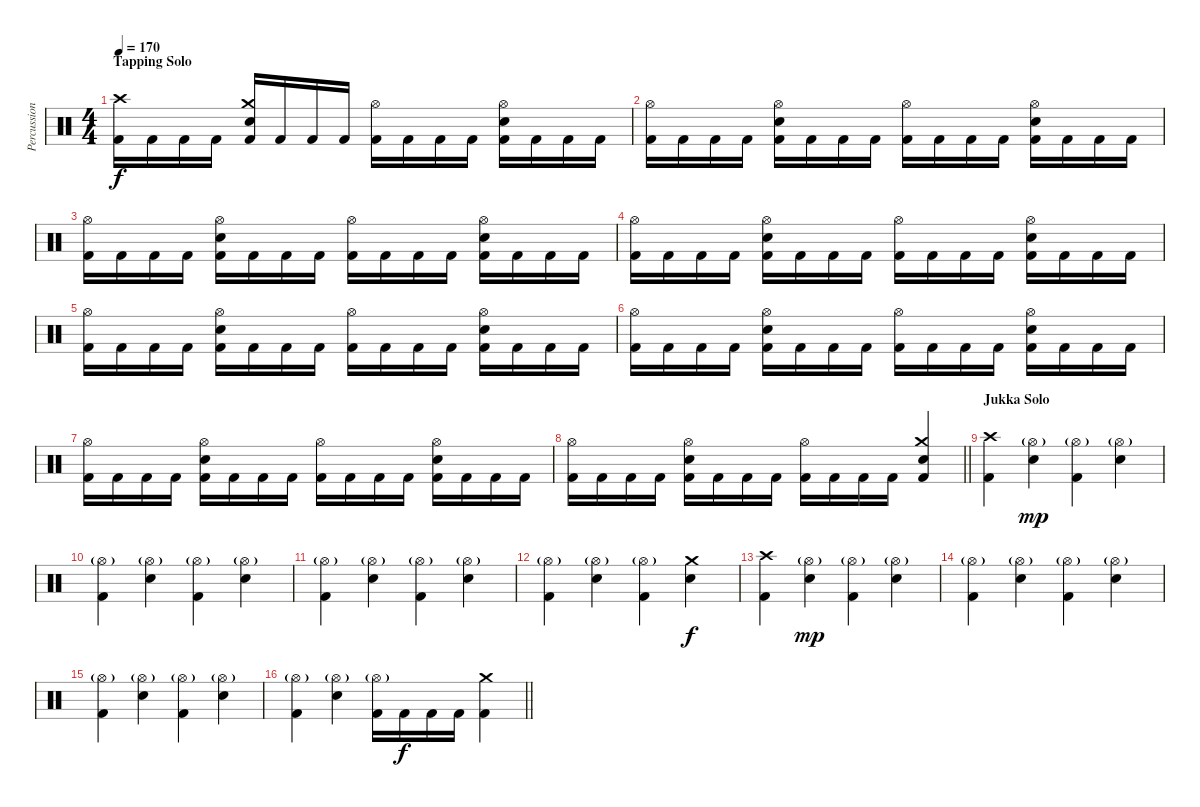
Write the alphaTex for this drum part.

\track ("Percussions" "Percussion") {instrument percussion}
\staff {score}
\articulation defaults
\ts (4 4)
\section ("" "Tapping Solo")
\tempo 170
\clef neutral
\ks c
("Crash high (hit)" "Kick (hit) 2").16{dy f} "Kick (hit) 2".16 "Kick (hit) 2".16 "Kick (hit) 2".16 ("Crash medium (hit)" "Electric Snare (hit)" "Kick (hit) 2").16 "Kick (hit) 2".16 "Kick (hit) 2".16 "Kick (hit) 2".16 ("Hi-Hat (open)" "Kick (hit) 2").16 "Kick (hit) 2".16 "Kick (hit) 2".16 "Kick (hit) 2".16 ("Hi-Hat (open)" "Electric Snare (hit)" "Kick (hit) 2").16 "Kick (hit) 2".16 "Kick (hit) 2".16 "Kick (hit) 2".16 |
("Hi-Hat (open)" "Kick (hit) 2").16 "Kick (hit) 2".16 "Kick (hit) 2".16 "Kick (hit) 2".16 ("Hi-Hat (open)" "Electric Snare (hit)" "Kick (hit) 2").16 "Kick (hit) 2".16 "Kick (hit) 2".16 "Kick (hit) 2".16 ("Hi-Hat (open)" "Kick (hit) 2").16 "Kick (hit) 2".16 "Kick (hit) 2".16 "Kick (hit) 2".16 ("Hi-Hat (open)" "Electric Snare (hit)" "Kick (hit) 2").16 "Kick (hit) 2".16 "Kick (hit) 2".16 "Kick (hit) 2".16 |
("Hi-Hat (open)" "Kick (hit) 2").16 "Kick (hit) 2".16 "Kick (hit) 2".16 "Kick (hit) 2".16 ("Hi-Hat (open)" "Electric Snare (hit)" "Kick (hit) 2").16 "Kick (hit) 2".16 "Kick (hit) 2".16 "Kick (hit) 2".16 ("Hi-Hat (open)" "Kick (hit) 2").16 "Kick (hit) 2".16 "Kick (hit) 2".16 "Kick (hit) 2".16 ("Hi-Hat (open)" "Electric Snare (hit)" "Kick (hit) 2").16 "Kick (hit) 2".16 "Kick (hit) 2".16 "Kick (hit) 2".16 |
("Hi-Hat (open)" "Kick (hit) 2").16 "Kick (hit) 2".16 "Kick (hit) 2".16 "Kick (hit) 2".16 ("Hi-Hat (open)" "Electric Snare (hit)" "Kick (hit) 2").16 "Kick (hit) 2".16 "Kick (hit) 2".16 "Kick (hit) 2".16 ("Hi-Hat (open)" "Kick (hit) 2").16 "Kick (hit) 2".16 "Kick (hit) 2".16 "Kick (hit) 2".16 ("Hi-Hat (open)" "Electric Snare (hit)" "Kick (hit) 2").16 "Kick (hit) 2".16 "Kick (hit) 2".16 "Kick (hit) 2".16 |
("Hi-Hat (open)" "Kick (hit) 2").16 "Kick (hit) 2".16 "Kick (hit) 2".16 "Kick (hit) 2".16 ("Hi-Hat (open)" "Electric Snare (hit)" "Kick (hit) 2").16 "Kick (hit) 2".16 "Kick (hit) 2".16 "Kick (hit) 2".16 ("Hi-Hat (open)" "Kick (hit) 2").16 "Kick (hit) 2".16 "Kick (hit) 2".16 "Kick (hit) 2".16 ("Hi-Hat (open)" "Electric Snare (hit)" "Kick (hit) 2").16 "Kick (hit) 2".16 "Kick (hit) 2".16 "Kick (hit) 2".16 |
("Hi-Hat (open)" "Kick (hit) 2").16 "Kick (hit) 2".16 "Kick (hit) 2".16 "Kick (hit) 2".16 ("Hi-Hat (open)" "Electric Snare (hit)" "Kick (hit) 2").16 "Kick (hit) 2".16 "Kick (hit) 2".16 "Kick (hit) 2".16 ("Hi-Hat (open)" "Kick (hit) 2").16 "Kick (hit) 2".16 "Kick (hit) 2".16 "Kick (hit) 2".16 ("Hi-Hat (open)" "Electric Snare (hit)" "Kick (hit) 2").16 "Kick (hit) 2".16 "Kick (hit) 2".16 "Kick (hit) 2".16 |
("Hi-Hat (open)" "Kick (hit) 2").16 "Kick (hit) 2".16 "Kick (hit) 2".16 "Kick (hit) 2".16 ("Hi-Hat (open)" "Electric Snare (hit)" "Kick (hit) 2").16 "Kick (hit) 2".16 "Kick (hit) 2".16 "Kick (hit) 2".16 ("Hi-Hat (open)" "Kick (hit) 2").16 "Kick (hit) 2".16 "Kick (hit) 2".16 "Kick (hit) 2".16 ("Hi-Hat (open)" "Electric Snare (hit)" "Kick (hit) 2").16 "Kick (hit) 2".16 "Kick (hit) 2".16 "Kick (hit) 2".16 |
\barLineRight lightlight
("Hi-Hat (open)" "Kick (hit) 2").16 "Kick (hit) 2".16 "Kick (hit) 2".16 "Kick (hit) 2".16 ("Hi-Hat (open)" "Electric Snare (hit)" "Kick (hit) 2").16 "Kick (hit) 2".16 "Kick (hit) 2".16 "Kick (hit) 2".16 ("Hi-Hat (open)" "Kick (hit) 2").16 "Kick (hit) 2".16 "Kick (hit) 2".16 "Kick (hit) 2".16 ("Crash medium (hit)" "Electric Snare (hit)" "Kick (hit) 2").4 |
\section ("" "Jukka Solo")
("Crash high (hit)" "Kick (hit) 2").4 ("Hi-Hat (open)"{g} "Electric Snare (hit)").4{dy mp} ("Hi-Hat (open)"{g} "Kick (hit) 2").4 ("Hi-Hat (open)"{g} "Electric Snare (hit)").4 |
("Hi-Hat (open)"{g} "Kick (hit) 2").4 ("Hi-Hat (open)"{g} "Electric Snare (hit)").4 ("Hi-Hat (open)"{g} "Kick (hit) 2").4 ("Hi-Hat (open)"{g} "Electric Snare (hit)").4 |
("Hi-Hat (open)"{g} "Kick (hit) 2").4 ("Hi-Hat (open)"{g} "Electric Snare (hit)").4 ("Hi-Hat (open)"{g} "Kick (hit) 2").4 ("Hi-Hat (open)"{g} "Electric Snare (hit)").4 |
("Hi-Hat (open)"{g} "Kick (hit) 2").4 ("Hi-Hat (open)"{g} "Electric Snare (hit)").4 ("Hi-Hat (open)"{g} "Kick (hit) 2").4 ("Crash medium (hit)" "Electric Snare (hit)").4{dy f} |
("Crash high (hit)" "Kick (hit) 2").4 ("Hi-Hat (open)"{g} "Electric Snare (hit)").4{dy mp} ("Hi-Hat (open)"{g} "Kick (hit) 2").4 ("Hi-Hat (open)"{g} "Electric Snare (hit)").4 |
("Hi-Hat (open)"{g} "Kick (hit) 2").4 ("Hi-Hat (open)"{g} "Electric Snare (hit)").4 ("Hi-Hat (open)"{g} "Kick (hit) 2").4 ("Hi-Hat (open)"{g} "Electric Snare (hit)").4 |
("Hi-Hat (open)"{g} "Kick (hit) 2").4 ("Hi-Hat (open)"{g} "Electric Snare (hit)").4 ("Hi-Hat (open)"{g} "Kick (hit) 2").4 ("Hi-Hat (open)"{g} "Electric Snare (hit)").4 |
\barLineRight lightlight
("Hi-Hat (open)"{g} "Kick (hit) 2").4 ("Hi-Hat (open)"{g} "Electric Snare (hit)").4 ("Hi-Hat (open)"{g} "Kick (hit) 2").16 "Kick (hit) 2".16{dy f} "Kick (hit) 2".16 "Kick (hit) 2".16 ("Crash medium (hit)" "Kick (hit) 2").4
